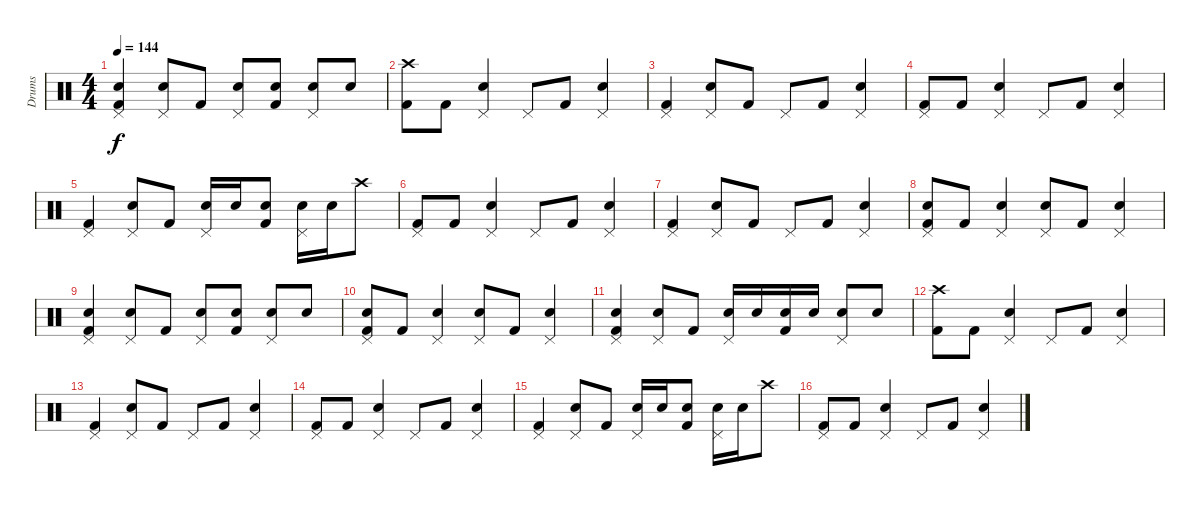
\track ("Drums" "Drums") {instrument percussion}
\staff {score}
\articulation defaults
\ts (4 4)
\tempo 144
\clef neutral
\ks c
("Electric Snare (hit)" "Kick (hit) 2" "Pedal Hi-Hat (hit)").4{dy f} ("Electric Snare (hit)" "Pedal Hi-Hat (hit)").8 "Kick (hit) 2".8 ("Electric Snare (hit)" "Pedal Hi-Hat (hit)").8 ("Electric Snare (hit)" "Kick (hit) 2").8 ("Electric Snare (hit)" "Pedal Hi-Hat (hit)").8 "Electric Snare (hit)".8 |
("Crash high (hit)" "Kick (hit) 2").8 "Kick (hit) 2".8 ("Pedal Hi-Hat (hit)" "Electric Snare (hit)").4 "Pedal Hi-Hat (hit)".8 "Kick (hit) 2".8 ("Pedal Hi-Hat (hit)" "Electric Snare (hit)").4 |
("Kick (hit) 2" "Pedal Hi-Hat (hit)").4 ("Electric Snare (hit)" "Pedal Hi-Hat (hit)").8 "Kick (hit) 2".8 "Pedal Hi-Hat (hit)".8 "Kick (hit) 2".8 ("Electric Snare (hit)" "Pedal Hi-Hat (hit)").4 |
("Pedal Hi-Hat (hit)" "Kick (hit) 2").8 "Kick (hit) 2".8 ("Pedal Hi-Hat (hit)" "Electric Snare (hit)").4 "Pedal Hi-Hat (hit)".8 "Kick (hit) 2".8 ("Pedal Hi-Hat (hit)" "Electric Snare (hit)").4 |
("Kick (hit) 2" "Pedal Hi-Hat (hit)").4 ("Electric Snare (hit)" "Pedal Hi-Hat (hit)").8 "Kick (hit) 2".8 ("Electric Snare (hit)" "Pedal Hi-Hat (hit)").16 "Electric Snare (hit)".16 ("Electric Snare (hit)" "Kick (hit) 2").8 ("Electric Snare (hit)" "Pedal Hi-Hat (hit)").16 "Electric Snare (hit)".16 "Crash high (hit)".8 |
("Pedal Hi-Hat (hit)" "Kick (hit) 2").8 "Kick (hit) 2".8 ("Pedal Hi-Hat (hit)" "Electric Snare (hit)").4 "Pedal Hi-Hat (hit)".8 "Kick (hit) 2".8 ("Pedal Hi-Hat (hit)" "Electric Snare (hit)").4 |
("Kick (hit) 2" "Pedal Hi-Hat (hit)").4 ("Electric Snare (hit)" "Pedal Hi-Hat (hit)").8 "Kick (hit) 2".8 "Pedal Hi-Hat (hit)".8 "Kick (hit) 2".8 ("Electric Snare (hit)" "Pedal Hi-Hat (hit)").4 |
("Electric Snare (hit)" "Pedal Hi-Hat (hit)" "Kick (hit) 2").8 "Kick (hit) 2".8 ("Pedal Hi-Hat (hit)" "Electric Snare (hit)").4 ("Electric Snare (hit)" "Pedal Hi-Hat (hit)").8 "Kick (hit) 2".8 ("Pedal Hi-Hat (hit)" "Electric Snare (hit)").4 |
("Electric Snare (hit)" "Kick (hit) 2" "Pedal Hi-Hat (hit)").4 ("Electric Snare (hit)" "Pedal Hi-Hat (hit)").8 "Kick (hit) 2".8 ("Electric Snare (hit)" "Pedal Hi-Hat (hit)").8 ("Electric Snare (hit)" "Kick (hit) 2").8 ("Electric Snare (hit)" "Pedal Hi-Hat (hit)").8 "Electric Snare (hit)".8 |
("Electric Snare (hit)" "Pedal Hi-Hat (hit)" "Kick (hit) 2").8 "Kick (hit) 2".8 ("Pedal Hi-Hat (hit)" "Electric Snare (hit)").4 ("Electric Snare (hit)" "Pedal Hi-Hat (hit)").8 "Kick (hit) 2".8 ("Pedal Hi-Hat (hit)" "Electric Snare (hit)").4 |
("Electric Snare (hit)" "Kick (hit) 2" "Pedal Hi-Hat (hit)").4 ("Electric Snare (hit)" "Pedal Hi-Hat (hit)").8 "Kick (hit) 2".8 ("Electric Snare (hit)" "Pedal Hi-Hat (hit)").16 "Electric Snare (hit)".16 ("Electric Snare (hit)" "Kick (hit) 2").16 "Electric Snare (hit)".16 ("Electric Snare (hit)" "Pedal Hi-Hat (hit)").8 "Electric Snare (hit)".8 |
("Crash high (hit)" "Kick (hit) 2").8 "Kick (hit) 2".8 ("Pedal Hi-Hat (hit)" "Electric Snare (hit)").4 "Pedal Hi-Hat (hit)".8 "Kick (hit) 2".8 ("Pedal Hi-Hat (hit)" "Electric Snare (hit)").4 |
("Kick (hit) 2" "Pedal Hi-Hat (hit)").4 ("Electric Snare (hit)" "Pedal Hi-Hat (hit)").8 "Kick (hit) 2".8 "Pedal Hi-Hat (hit)".8 "Kick (hit) 2".8 ("Electric Snare (hit)" "Pedal Hi-Hat (hit)").4 |
("Pedal Hi-Hat (hit)" "Kick (hit) 2").8 "Kick (hit) 2".8 ("Pedal Hi-Hat (hit)" "Electric Snare (hit)").4 "Pedal Hi-Hat (hit)".8 "Kick (hit) 2".8 ("Pedal Hi-Hat (hit)" "Electric Snare (hit)").4 |
("Kick (hit) 2" "Pedal Hi-Hat (hit)").4 ("Electric Snare (hit)" "Pedal Hi-Hat (hit)").8 "Kick (hit) 2".8 ("Electric Snare (hit)" "Pedal Hi-Hat (hit)").16 "Electric Snare (hit)".16 ("Electric Snare (hit)" "Kick (hit) 2").8 ("Electric Snare (hit)" "Pedal Hi-Hat (hit)").16 "Electric Snare (hit)".16 "Crash high (hit)".8 |
("Pedal Hi-Hat (hit)" "Kick (hit) 2").8 "Kick (hit) 2".8 ("Pedal Hi-Hat (hit)" "Electric Snare (hit)").4 "Pedal Hi-Hat (hit)".8 "Kick (hit) 2".8 ("Pedal Hi-Hat (hit)" "Electric Snare (hit)").4
